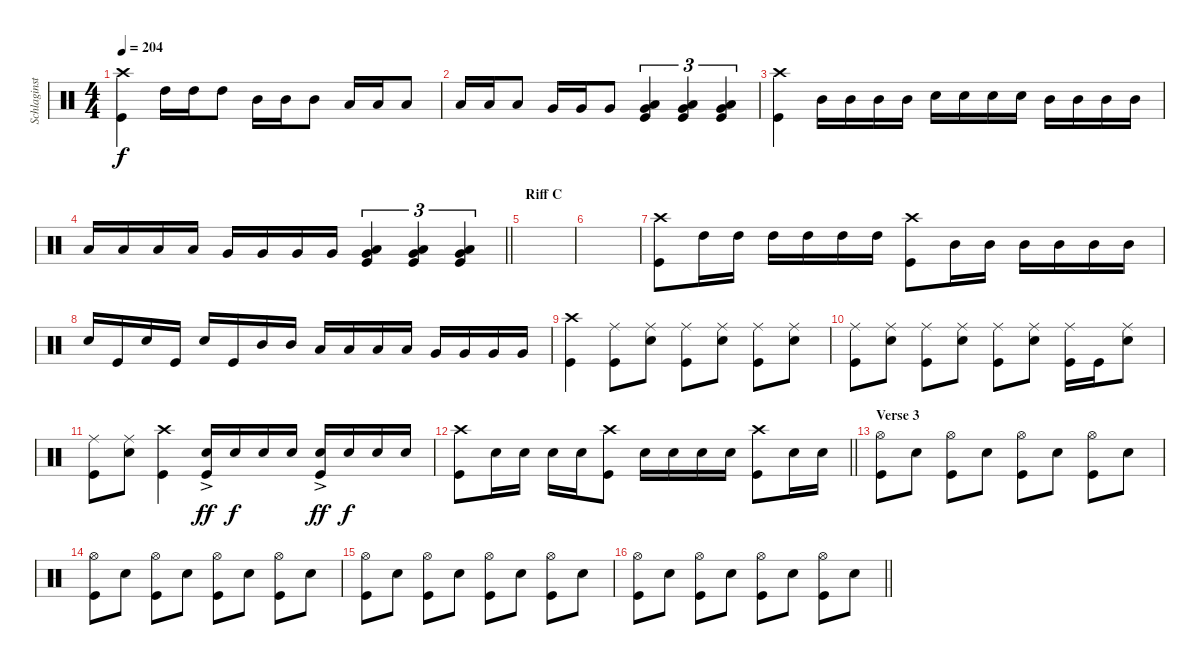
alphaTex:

\track ("Schlaginstrumente - Auswahl" "Schlaginst") {instrument percussion}
\staff {score}
\articulation defaults
\ts (4 4)
\tempo 204
\clef neutral
\ks c
("Kick (hit)" "Crash high (hit)").4{dy f} "High Tom (hit)".16 "High Tom (hit)".16 "High Tom (hit)".8 "Mid Tom (hit)".16 "Mid Tom (hit)".16 "Mid Tom (hit)".8 "Low Tom (hit)".16 "Low Tom (hit)".16 "Low Tom (hit)".8 |
"Low Tom (hit)".16 "Low Tom (hit)".16 "Low Tom (hit)".8 "Very Low Tom (hit)".16 "Very Low Tom (hit)".16 "Very Low Tom (hit)".8 ("Very Low Tom (hit)" "Low Floor Tom (hit)" "Kick (hit)").4{tu (3 2)} ("Very Low Tom (hit)" "Low Floor Tom (hit)" "Kick (hit)").4{tu (3 2)} ("Very Low Tom (hit)" "Low Floor Tom (hit)" "Kick (hit)").4{tu (3 2)} |
("Kick (hit)" "Crash high (hit)").4 "Mid Tom (hit)".16 "Mid Tom (hit)".16 "Mid Tom (hit)".16 "Mid Tom (hit)".16 "Snare (hit) 2".16 "Snare (hit) 2".16 "Snare (hit) 2".16 "Snare (hit) 2".16 "Mid Tom (hit)".16 "Mid Tom (hit)".16 "Mid Tom (hit)".16 "Mid Tom (hit)".16 |
\barLineRight lightlight "Low Tom (hit)".16 "Low Tom (hit)".16 "Low Tom (hit)".16 "Low Tom (hit)".16 "Very Low Tom (hit)".16 "Very Low Tom (hit)".16 "Very Low Tom (hit)".16 "Very Low Tom (hit)".16
("Kick (hit)" "Low Floor Tom (hit)" "Very Low Tom (hit)").4{tu (3 2)} ("Kick (hit)" "Low Floor Tom (hit)" "Very Low Tom (hit)").4{tu (3 2)} ("Kick (hit)" "Low Floor Tom (hit)" "Very Low Tom (hit)").4{tu (3 2)} |
\section ("" "Riff C")
|
|
("Kick (hit)" "Crash high (hit)").8 "High Tom (hit)".16 "High Tom (hit)".16 "High Tom (hit)".16 "High Tom (hit)".16 "High Tom (hit)".16 "High Tom (hit)".16 ("Kick (hit)" "Crash high (hit)").8 "Mid Tom (hit)".16 "Mid Tom (hit)".16 "Mid Tom (hit)".16 "Mid Tom (hit)".16 "Mid Tom (hit)".16 "Mid Tom (hit)".16 |
"Snare (hit) 2".16 "Kick (hit)".16 "Snare (hit) 2".16 "Kick (hit)".16 "Snare (hit) 2".16 "Kick (hit)".16 "Mid Tom (hit)".16 "Mid Tom (hit)".16 "Low Tom (hit)".16 "Low Tom (hit)".16 "Low Tom (hit)".16 "Low Tom (hit)".16 "Very Low Tom (hit)".16 "Very Low Tom (hit)".16 "Very Low Tom (hit)".16 "Very Low Tom (hit)".16 |
("Kick (hit)" "Crash high (hit)").4 ("Kick (hit)" "Ride (middle)").8 ("Snare (hit) 2" "Ride (middle)").8 ("Kick (hit)" "Ride (middle)").8 ("Snare (hit) 2" "Ride (middle)").8 ("Kick (hit)" "Ride (middle)").8 ("Snare (hit) 2" "Ride (middle)").8 |
("Kick (hit)" "Ride (middle)").8 ("Snare (hit) 2" "Ride (middle)").8 ("Kick (hit)" "Ride (middle)").8 ("Snare (hit) 2" "Ride (middle)").8 ("Kick (hit)" "Ride (middle)").8 ("Snare (hit) 2" "Ride (middle)").8 ("Ride (middle)" "Kick (hit)").16 "Kick (hit)".16 ("Snare (hit) 2" "Ride (middle)").8 |
("Kick (hit)" "Ride (middle)").8 ("Snare (hit) 2" "Ride (middle)").8 ("Kick (hit)" "Crash high (hit)").4 ("Snare (hit) 2"{ac} "Kick (hit)").16{dy ff} "Snare (hit) 2".16{dy f} "Snare (hit) 2".16 "Snare (hit) 2".16 ("Snare (hit) 2"{ac} "Kick (hit)").16{dy ff} "Snare (hit) 2".16{dy f} "Snare (hit) 2".16 "Snare (hit) 2".16 |
\barLineRight lightlight
("Kick (hit)" "Crash high (hit)").8 "Snare (hit) 2".16 "Snare (hit) 2".16 "Snare (hit) 2".16 "Snare (hit) 2".16 ("Kick (hit)" "Crash high (hit)").8 "Snare (hit) 2".16 "Snare (hit) 2".16 "Snare (hit) 2".16 "Snare (hit) 2".16 ("Kick (hit)" "Crash high (hit)").8 "Snare (hit) 2".16 "Snare (hit) 2".16 |
\section ("" "Verse 3")
("Kick (hit)" "Hi-Hat (open)").8 "Snare (hit) 2".8 ("Kick (hit)" "Hi-Hat (open)").8 "Snare (hit) 2".8 ("Kick (hit)" "Hi-Hat (open)").8 "Snare (hit) 2".8 ("Kick (hit)" "Hi-Hat (open)").8 "Snare (hit) 2".8 |
("Kick (hit)" "Hi-Hat (open)").8 "Snare (hit) 2".8 ("Kick (hit)" "Hi-Hat (open)").8 "Snare (hit) 2".8 ("Kick (hit)" "Hi-Hat (open)").8 "Snare (hit) 2".8 ("Kick (hit)" "Hi-Hat (open)").8 "Snare (hit) 2".8 |
("Kick (hit)" "Hi-Hat (open)").8 "Snare (hit) 2".8 ("Kick (hit)" "Hi-Hat (open)").8 "Snare (hit) 2".8 ("Kick (hit)" "Hi-Hat (open)").8 "Snare (hit) 2".8 ("Kick (hit)" "Hi-Hat (open)").8 "Snare (hit) 2".8 |
\barLineRight lightlight
("Kick (hit)" "Hi-Hat (open)").8 "Snare (hit) 2".8 ("Kick (hit)" "Hi-Hat (open)").8 "Snare (hit) 2".8 ("Kick (hit)" "Hi-Hat (open)").8 "Snare (hit) 2".8 ("Kick (hit)" "Hi-Hat (open)").8 "Snare (hit) 2".8
